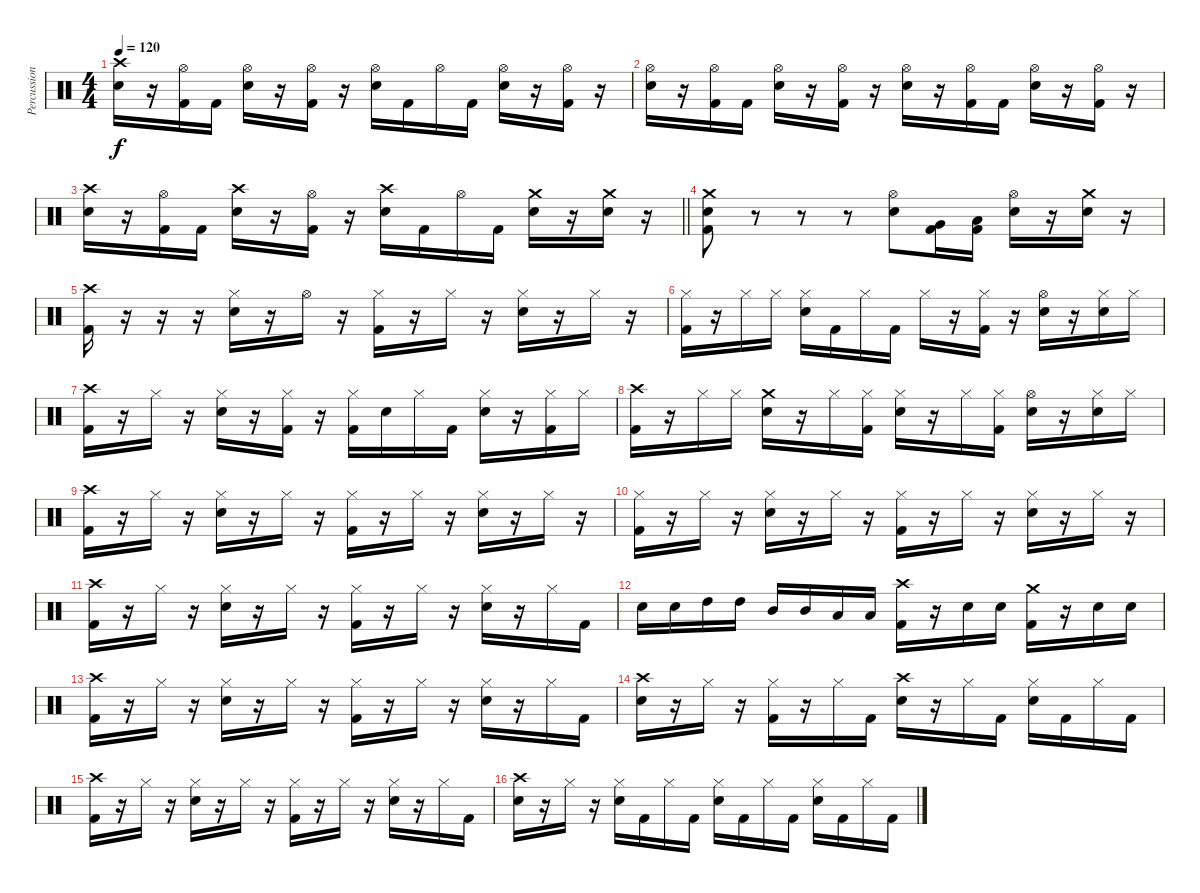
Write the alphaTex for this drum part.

\track ("Percussion" "Percussion") {instrument percussion}
\staff {score}
\articulation defaults
\ts (4 4)
\tempo 120
\clef neutral
\ks c
("Crash high (hit)" "Snare (hit) 2").16{dy f} r.16 ("Hi-Hat (open)" "Kick (hit) 2").16 "Kick (hit) 2".16 ("Hi-Hat (open)" "Snare (hit) 2").16 r.16 ("Hi-Hat (open)" "Kick (hit) 2").16 r.16 ("Hi-Hat (open)" "Snare (hit) 2").16 "Kick (hit) 2".16 "Hi-Hat (open)".16 "Kick (hit) 2".16 ("Hi-Hat (open)" "Snare (hit) 2").16 r.16 ("Hi-Hat (open)" "Kick (hit) 2").16 r.16 |
("Hi-Hat (open)" "Snare (hit) 2").16 r.16 ("Hi-Hat (open)" "Kick (hit) 2").16 "Kick (hit) 2".16 ("Hi-Hat (open)" "Snare (hit) 2").16 r.16 ("Hi-Hat (open)" "Kick (hit) 2").16 r.16 ("Hi-Hat (open)" "Snare (hit) 2").16 r.16 ("Hi-Hat (open)" "Kick (hit) 2").16 "Kick (hit) 2".16 ("Hi-Hat (open)" "Snare (hit) 2").16 r.16 ("Hi-Hat (open)" "Kick (hit) 2").16 r.16 |
\barLineRight lightlight
("Crash high (hit)" "Snare (hit) 2").16 r.16 ("Hi-Hat (open)" "Kick (hit) 2").16 "Kick (hit) 2".16 ("Crash high (hit)" "Snare (hit) 2").16 r.16 ("Hi-Hat (open)" "Kick (hit) 2").16 r.16 ("Crash high (hit)" "Snare (hit) 2").16 "Kick (hit) 2".16 "Hi-Hat (open)".16 "Kick (hit) 2".16 ("Crash medium (hit)" "Snare (hit) 2").16 r.16 ("Crash medium (hit)" "Snare (hit) 2").16 r.16 |
\section ("" "")
("Crash medium (hit)" "Snare (hit) 2" "Kick (hit) 2").8 r.8 r.8 r.8 ("Hi-Hat (open)" "Snare (hit) 2").8 ("Very Low Tom (hit)" "Kick (hit) 2").16 ("Low Floor Tom (hit)" "Kick (hit) 2").16 ("Hi-Hat (open)" "Snare (hit) 2").16 r.16 ("Crash medium (hit)" "Snare (hit) 2").16 r.16 |
("Crash high (hit)" "Kick (hit) 2").16 r.16 r.16 r.16 ("Hi-Hat (closed)" "Snare (hit) 2").16 r.16 "Hi-Hat (open)".16 r.16 ("Hi-Hat (closed)" "Kick (hit) 2").16 r.16 "Hi-Hat (closed)".16 r.16 ("Hi-Hat (closed)" "Snare (hit) 2").16 r.16 "Hi-Hat (closed)".16 r.16 |
("Hi-Hat (closed)" "Kick (hit) 2").16 r.16 "Hi-Hat (closed)".16 "Hi-Hat (closed)".16 ("Hi-Hat (closed)" "Snare (hit) 2").16 "Kick (hit) 2".16 "Hi-Hat (closed)".16 "Kick (hit) 2".16 "Hi-Hat (closed)".16 r.16 ("Hi-Hat (closed)" "Kick (hit) 2").16 r.16 ("Hi-Hat (open)" "Snare (hit) 2").16 r.16 ("Hi-Hat (closed)" "Snare (hit) 2").16 "Hi-Hat (closed)".16 |
("Crash high (hit)" "Kick (hit) 2").16 r.16 "Hi-Hat (closed)".16 r.16 ("Hi-Hat (closed)" "Snare (hit) 2").16 r.16 ("Hi-Hat (closed)" "Kick (hit) 2").16 r.16 ("Hi-Hat (closed)" "Kick (hit) 2").16 "Snare (hit) 2".16 "Hi-Hat (closed)".16 "Kick (hit) 2".16 ("Hi-Hat (closed)" "Snare (hit) 2").16 r.16 ("Hi-Hat (closed)" "Kick (hit) 2").16 "Hi-Hat (closed)".16 |
("Crash high (hit)" "Kick (hit) 2").16 r.16 "Hi-Hat (closed)".16 "Hi-Hat (closed)".16 ("Crash medium (hit)" "Snare (hit) 2").16 r.16 "Hi-Hat (closed)".16 ("Hi-Hat (closed)" "Kick (hit) 2").16 ("Hi-Hat (closed)" "Snare (hit) 2").16 r.16 "Hi-Hat (closed)".16 ("Hi-Hat (closed)" "Kick (hit) 2").16 ("Hi-Hat (open)" "Snare (hit) 2").16 r.16 ("Hi-Hat (closed)" "Snare (hit) 2").16 "Hi-Hat (closed)".16 |
("Crash high (hit)" "Kick (hit) 2").16 r.16 "Hi-Hat (closed)".16 r.16 ("Hi-Hat (closed)" "Snare (hit) 2").16 r.16 "Hi-Hat (closed)".16 r.16 ("Hi-Hat (closed)" "Kick (hit) 2").16 r.16 "Hi-Hat (closed)".16 r.16 ("Hi-Hat (closed)" "Snare (hit) 2").16 r.16 "Hi-Hat (closed)".16 r.16 |
("Hi-Hat (closed)" "Kick (hit) 2").16 r.16 "Hi-Hat (closed)".16 r.16 ("Hi-Hat (closed)" "Snare (hit) 2").16 r.16 "Hi-Hat (closed)".16 r.16 ("Hi-Hat (closed)" "Kick (hit) 2").16 r.16 "Hi-Hat (closed)".16 r.16 ("Hi-Hat (closed)" "Snare (hit) 2").16 r.16 "Hi-Hat (closed)".16 r.16 |
("Crash high (hit)" "Kick (hit) 2").16 r.16 "Hi-Hat (closed)".16 r.16 ("Hi-Hat (closed)" "Snare (hit) 2").16 r.16 "Hi-Hat (closed)".16 r.16 ("Hi-Hat (closed)" "Kick (hit) 2").16 r.16 "Hi-Hat (closed)".16 r.16 ("Hi-Hat (closed)" "Snare (hit) 2").16 r.16 "Hi-Hat (closed)".16 "Kick (hit) 2".16 |
"Snare (hit) 2".16 "Snare (hit) 2".16 "High Tom (hit)".16 "High Tom (hit)".16 "Mid Tom (hit)".16 "Mid Tom (hit)".16 "Low Tom (hit)".16 "Low Tom (hit)".16 ("Crash high (hit)" "Kick (hit) 2").16 r.16 "Snare (hit) 2".16 "Snare (hit) 2".16 ("Crash medium (hit)" "Kick (hit) 2").16 r.16 "Snare (hit) 2".16 "Snare (hit) 2".16 |
("Crash high (hit)" "Kick (hit) 2").16 r.16 "Hi-Hat (closed)".16 r.16 ("Hi-Hat (closed)" "Snare (hit) 2").16 r.16 "Hi-Hat (closed)".16 r.16 ("Hi-Hat (closed)" "Kick (hit) 2").16 r.16 "Hi-Hat (closed)".16 r.16 ("Hi-Hat (closed)" "Snare (hit) 2").16 r.16 "Hi-Hat (closed)".16 "Kick (hit) 2".16 |
("Crash high (hit)" "Snare (hit) 2").16 r.16 "Hi-Hat (closed)".16 r.16 ("Hi-Hat (closed)" "Kick (hit) 2").16 r.16 "Hi-Hat (closed)".16 "Kick (hit) 2".16 ("Crash high (hit)" "Snare (hit) 2").16 r.16 "Hi-Hat (closed)".16 "Kick (hit) 2".16 ("Hi-Hat (closed)" "Snare (hit) 2").16 "Kick (hit) 2".16 "Hi-Hat (closed)".16 "Kick (hit) 2".16 |
("Crash high (hit)" "Kick (hit) 2").16 r.16 "Hi-Hat (closed)".16 r.16 ("Hi-Hat (closed)" "Snare (hit) 2").16 r.16 "Hi-Hat (closed)".16 r.16 ("Hi-Hat (closed)" "Kick (hit) 2").16 r.16 "Hi-Hat (closed)".16 r.16 ("Hi-Hat (closed)" "Snare (hit) 2").16 r.16 "Hi-Hat (closed)".16 "Kick (hit) 2".16 |
("Crash high (hit)" "Snare (hit) 2").16 r.16 "Hi-Hat (closed)".16 r.16 ("Hi-Hat (closed)" "Snare (hit) 2").16 "Kick (hit) 2".16 "Hi-Hat (closed)".16 "Kick (hit) 2".16 ("Hi-Hat (closed)" "Snare (hit) 2").16 "Kick (hit) 2".16 "Hi-Hat (closed)".16 "Kick (hit) 2".16 ("Hi-Hat (closed)" "Snare (hit) 2").16 "Kick (hit) 2".16 "Hi-Hat (closed)".16 "Kick (hit) 2".16
